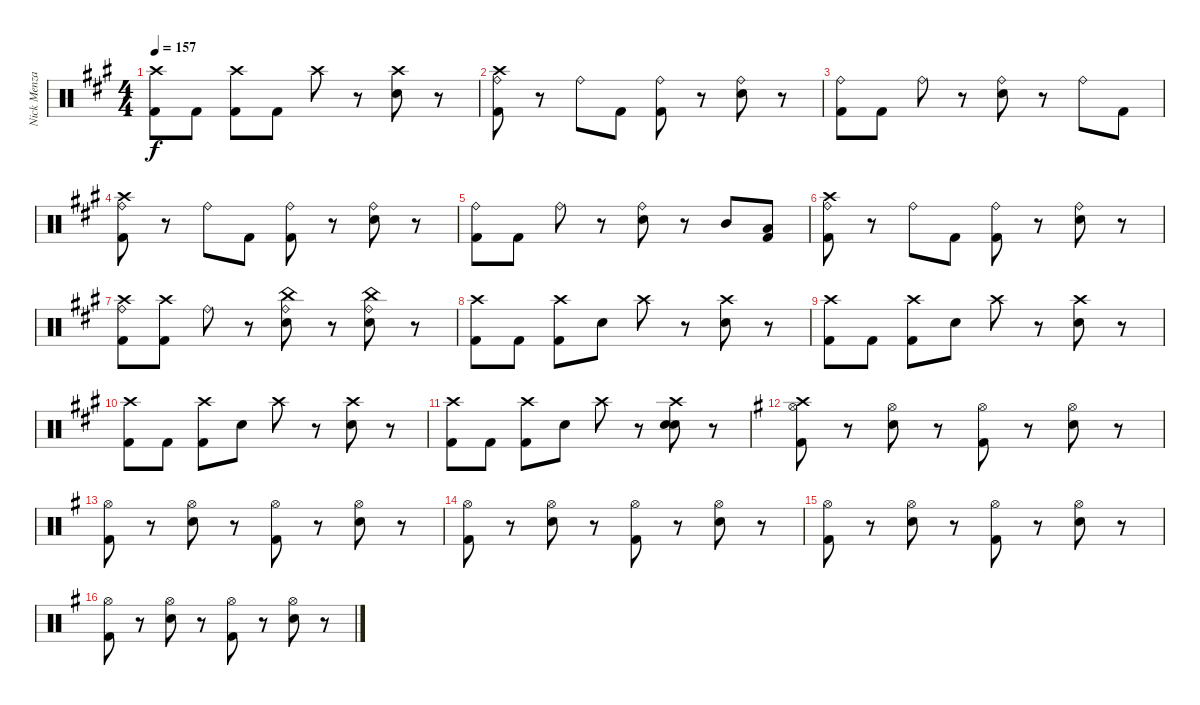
\track ("Nick Menza" "Nick Menza") {instrument percussion}
\staff {score}
\articulation defaults
\ts (4 4)
\tempo 157
\clef neutral
\ks a
("Crash high (hit)" "Kick (hit) 2").8{dy f} "Kick (hit) 2".8 ("Crash high (hit)" "Kick (hit) 2").8 "Kick (hit) 2".8 "Crash high (hit)".8 r.8 ("Crash high (hit)" "Snare (hit) 2").8 r.8 |
("Ride (bell)" "Kick (hit) 2" "Crash high (hit)").8 r.8 "Ride (bell)".8 "Kick (hit) 2".8 ("Ride (bell)" "Kick (hit) 2").8 r.8 ("Ride (bell)" "Snare (hit) 2").8 r.8 |
("Ride (bell)" "Kick (hit) 2").8 "Kick (hit) 2".8 "Ride (bell)".8 r.8 ("Ride (bell)" "Snare (hit) 2").8 r.8 "Ride (bell)".8 "Kick (hit) 2".8 |
("Ride (bell)" "Kick (hit) 2" "Crash high (hit)").8 r.8 "Ride (bell)".8 "Kick (hit) 2".8 ("Ride (bell)" "Kick (hit) 2").8 r.8 ("Ride (bell)" "Snare (hit) 2").8 r.8 |
("Ride (bell)" "Kick (hit) 2").8 "Kick (hit) 2".8 "Ride (bell)".8 r.8 ("Ride (bell)" "Snare (hit) 2").8 r.8 "Mid Tom (hit)".8 ("Low Tom (hit)" "Kick (hit) 2").8 |
("Ride (bell)" "Kick (hit) 2" "Crash high (hit)").8 r.8 "Ride (bell)".8 "Kick (hit) 2".8 ("Ride (bell)" "Kick (hit) 2").8 r.8 ("Ride (bell)" "Snare (hit) 2").8 r.8 |
("Ride (bell)" "Kick (hit) 2" "Crash high (hit)").8 ("Kick (hit) 2" "Crash high (hit)").8 "Ride (bell)".8 r.8 ("Ride (bell)" "Snare (hit) 2" "China (hit)").8 r.8 ("Ride (bell)" "Snare (hit) 2" "China (hit)").8 r.8 |
("Crash high (hit)" "Kick (hit) 2").8 "Kick (hit) 2".8 ("Crash high (hit)" "Kick (hit) 2").8 "Snare (hit) 2".8 "Crash high (hit)".8 r.8 ("Crash high (hit)" "Snare (hit) 2").8 r.8 |
("Crash high (hit)" "Kick (hit) 2").8 "Kick (hit) 2".8 ("Crash high (hit)" "Kick (hit) 2").8 "Snare (hit) 2".8 "Crash high (hit)".8 r.8 ("Crash high (hit)" "Snare (hit) 2").8 r.8 |
("Crash high (hit)" "Kick (hit) 2").8 "Kick (hit) 2".8 ("Crash high (hit)" "Kick (hit) 2").8 "Snare (hit) 2".8 "Crash high (hit)".8 r.8 ("Crash high (hit)" "Snare (hit) 2").8 r.8 |
("Crash high (hit)" "Kick (hit) 2").8 "Kick (hit) 2".8 ("Crash high (hit)" "Kick (hit) 2").8 "Snare (hit) 2".8 "Crash high (hit)".8 r.8 ("Crash high (hit)" "Snare (hit) 2" "Snare (hit) 2").8 r.8 |
\ks g
("Hi-Hat (open)" "Kick (hit) 2" "Crash high (hit)").8 r.8 ("Hi-Hat (open)" "Snare (hit) 2").8 r.8 ("Hi-Hat (open)" "Kick (hit) 2").8 r.8 ("Hi-Hat (open)" "Snare (hit) 2").8 r.8 |
("Hi-Hat (open)" "Kick (hit) 2").8 r.8 ("Hi-Hat (open)" "Snare (hit) 2").8 r.8 ("Hi-Hat (open)" "Kick (hit) 2").8 r.8 ("Hi-Hat (open)" "Snare (hit) 2").8 r.8 |
("Hi-Hat (open)" "Kick (hit) 2").8 r.8 ("Hi-Hat (open)" "Snare (hit) 2").8 r.8 ("Hi-Hat (open)" "Kick (hit) 2").8 r.8 ("Hi-Hat (open)" "Snare (hit) 2").8 r.8 |
("Hi-Hat (open)" "Kick (hit) 2").8 r.8 ("Hi-Hat (open)" "Snare (hit) 2").8 r.8 ("Hi-Hat (open)" "Kick (hit) 2").8 r.8 ("Hi-Hat (open)" "Snare (hit) 2").8 r.8 |
("Hi-Hat (open)" "Kick (hit) 2").8 r.8 ("Hi-Hat (open)" "Snare (hit) 2").8 r.8 ("Hi-Hat (open)" "Kick (hit) 2").8 r.8 ("Hi-Hat (open)" "Snare (hit) 2").8 r.8
